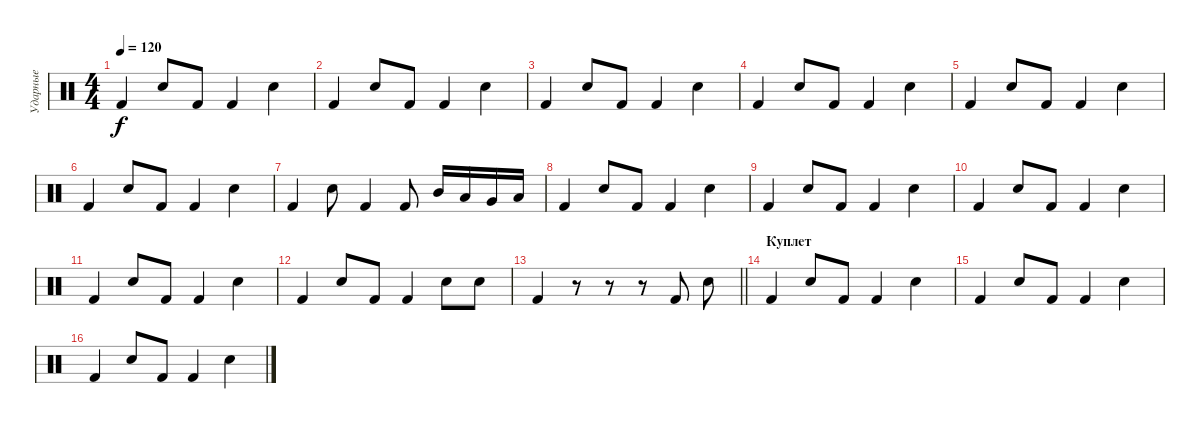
\track ("Ударные" "Ударные") {instrument percussion}
\staff {score}
\articulation defaults
\ts (4 4)
\tempo 120
\clef neutral
\ks c "Kick (hit) 2".4{dy f} "Electric Snare (hit)".8 "Kick (hit) 2".8 "Kick (hit) 2".4 "Electric Snare (hit)".4
|
"Kick (hit) 2".4 "Electric Snare (hit)".8 "Kick (hit) 2".8 "Kick (hit) 2".4 "Electric Snare (hit)".4 |
"Kick (hit) 2".4 "Electric Snare (hit)".8 "Kick (hit) 2".8 "Kick (hit) 2".4 "Electric Snare (hit)".4 |
"Kick (hit) 2".4 "Electric Snare (hit)".8 "Kick (hit) 2".8 "Kick (hit) 2".4 "Electric Snare (hit)".4 |
"Kick (hit) 2".4 "Electric Snare (hit)".8 "Kick (hit) 2".8 "Kick (hit) 2".4 "Electric Snare (hit)".4 |
"Kick (hit) 2".4 "Electric Snare (hit)".8 "Kick (hit) 2".8 "Kick (hit) 2".4 "Electric Snare (hit)".4 |
"Kick (hit) 2".4 "Electric Snare (hit)".8 "Kick (hit) 2".4 "Kick (hit) 2".8 "Mid Tom (hit)".16 "Low Tom (hit)".16 "Very Low Tom (hit)".16 "Low Floor Tom (hit)".16 |
"Kick (hit) 2".4 "Electric Snare (hit)".8 "Kick (hit) 2".8 "Kick (hit) 2".4 "Electric Snare (hit)".4 |
"Kick (hit) 2".4 "Electric Snare (hit)".8 "Kick (hit) 2".8 "Kick (hit) 2".4 "Electric Snare (hit)".4 |
"Kick (hit) 2".4 "Electric Snare (hit)".8 "Kick (hit) 2".8 "Kick (hit) 2".4 "Electric Snare (hit)".4 |
"Kick (hit) 2".4 "Electric Snare (hit)".8 "Kick (hit) 2".8 "Kick (hit) 2".4 "Electric Snare (hit)".4 |
"Kick (hit) 2".4 "Electric Snare (hit)".8 "Kick (hit) 2".8 "Kick (hit) 2".4 "Electric Snare (hit)".8 "Electric Snare (hit)".8 |
\barLineRight lightlight "Kick (hit) 2".4
r.8 r.8 r.8 "Kick (hit) 2".8 "Electric Snare (hit)".8 |
\section ("" "Куплет")
"Kick (hit) 2".4 "Electric Snare (hit)".8 "Kick (hit) 2".8 "Kick (hit) 2".4 "Electric Snare (hit)".4 |
"Kick (hit) 2".4 "Electric Snare (hit)".8 "Kick (hit) 2".8 "Kick (hit) 2".4 "Electric Snare (hit)".4 |
"Kick (hit) 2".4 "Electric Snare (hit)".8 "Kick (hit) 2".8 "Kick (hit) 2".4 "Electric Snare (hit)".4
